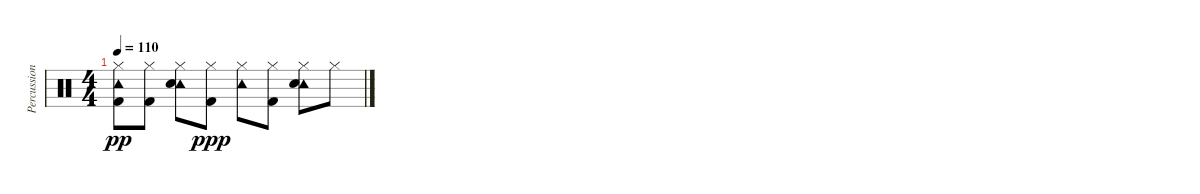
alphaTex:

\track ("Percussion" "Percussion") {instrument percussion}
\staff {score}
\articulation defaults
\ts (4 4)
\tempo 110
\clef neutral
\ks c
("Tambourine (hit)" "Hi-Hat (closed)" "Kick (hit) 2").8{dy pp} ("Hi-Hat (closed)" "Kick (hit) 2").8 ("Tambourine (hit)" "Hi-Hat (closed)" "Snare (hit) 2").8 ("Hi-Hat (closed)" "Kick (hit) 2").8{dy ppp} ("Tambourine (hit)" "Hi-Hat (closed)").8 ("Hi-Hat (closed)" "Kick (hit) 2").8 ("Tambourine (hit)" "Hi-Hat (closed)" "Snare (hit) 2").8 "Hi-Hat (closed)".8
